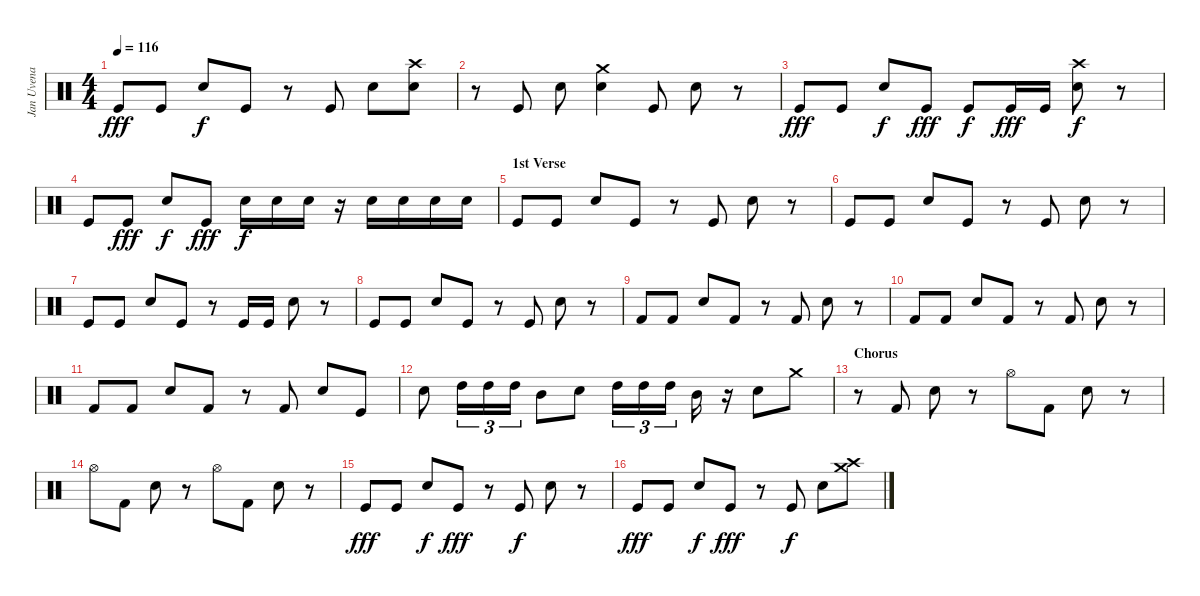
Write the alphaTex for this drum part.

\track ("Jan Uvena" "Jan Uvena") {instrument percussion}
\staff {score}
\articulation defaults
\ts (4 4)
\tempo 116
\clef neutral
\ks c "Kick (hit)".8{dy fff} "Kick (hit)".8 "Snare (hit) 2".8{dy f} "Kick (hit)".8
r.8 "Kick (hit)".8 "Snare (hit) 2".8 ("Crash high (hit)" "Snare (hit) 2").8 |
r.8 "Kick (hit)".8 "Snare (hit) 2".8 ("Crash medium (hit)" "Snare (hit) 2").4 "Kick (hit)".8 "Snare (hit) 2".8 r.8 |
"Kick (hit)".8{dy fff} "Kick (hit)".8 "Snare (hit) 2".8{dy f} "Kick (hit)".8{dy fff} "Kick (hit)".8{dy f} "Kick (hit)".16{dy fff} "Kick (hit)".16 ("Crash high (hit)" "Snare (hit) 2").8{dy f} r.8 |
"Kick (hit)".8 "Kick (hit)".8{dy fff} "Snare (hit) 2".8{dy f} "Kick (hit)".8{dy fff} "Snare (hit) 2".16{dy f} "Snare (hit) 2".16 "Snare (hit) 2".16 r.16 "Snare (hit) 2".16 "Snare (hit) 2".16 "Snare (hit) 2".16 "Snare (hit) 2".16 |
\section ("" "1st Verse")
"Kick (hit)".8 "Kick (hit)".8 "Snare (hit) 2".8 "Kick (hit)".8 r.8 "Kick (hit)".8 "Snare (hit) 2".8 r.8 |
"Kick (hit)".8 "Kick (hit)".8 "Snare (hit) 2".8 "Kick (hit)".8 r.8 "Kick (hit)".8 "Snare (hit) 2".8 r.8 |
"Kick (hit)".8 "Kick (hit)".8 "Snare (hit) 2".8 "Kick (hit)".8 r.8 "Kick (hit)".16 "Kick (hit)".16 "Snare (hit) 2".8 r.8 |
"Kick (hit)".8 "Kick (hit)".8 "Snare (hit) 2".8 "Kick (hit)".8 r.8 "Kick (hit)".8 "Snare (hit) 2".8 r.8 |
"Kick (hit) 2".8 "Kick (hit) 2".8 "Snare (hit) 2".8 "Kick (hit) 2".8 r.8 "Kick (hit) 2".8 "Snare (hit) 2".8 r.8 |
"Kick (hit) 2".8 "Kick (hit) 2".8 "Snare (hit) 2".8 "Kick (hit) 2".8 r.8 "Kick (hit) 2".8 "Snare (hit) 2".8 r.8 |
"Kick (hit) 2".8 "Kick (hit) 2".8 "Snare (hit) 2".8 "Kick (hit) 2".8 r.8 "Kick (hit) 2".8 "Snare (hit) 2".8 "Kick (hit)".8 |
"Snare (hit) 2".8 "High Tom (hit)".16{tu (3 2)} "High Tom (hit)".16{tu (3 2)} "High Tom (hit)".16{tu (3 2)} "Mid Tom (hit)".8 "Snare (hit) 2".8 "High Tom (hit)".16{tu (3 2)} "High Tom (hit)".16{tu (3 2)} "High Tom (hit)".16{tu (3 2)} "Mid Tom (hit)".16 r.16 "Snare (hit) 2".8 "Crash medium (hit)".8 |
\section ("" "Chorus")
r.8 "Kick (hit) 2".8 "Snare (hit) 2".8 r.8 "Hi-Hat (open)".8 "Kick (hit) 2".8 "Snare (hit) 2".8 r.8 |
"Hi-Hat (open)".8 "Kick (hit) 2".8 "Snare (hit) 2".8 r.8 "Hi-Hat (open)".8 "Kick (hit) 2".8 "Snare (hit) 2".8 r.8 |
"Kick (hit)".8{dy fff} "Kick (hit)".8 "Snare (hit) 2".8{dy f} "Kick (hit)".8{dy fff} r.8 "Kick (hit)".8{dy f} "Snare (hit) 2".8 r.8 |
"Kick (hit)".8{dy fff} "Kick (hit)".8 "Snare (hit) 2".8{dy f} "Kick (hit)".8{dy fff} r.8 "Kick (hit)".8{dy f} "Snare (hit) 2".8 ("Crash medium (hit)" "Crash high (hit)").8
